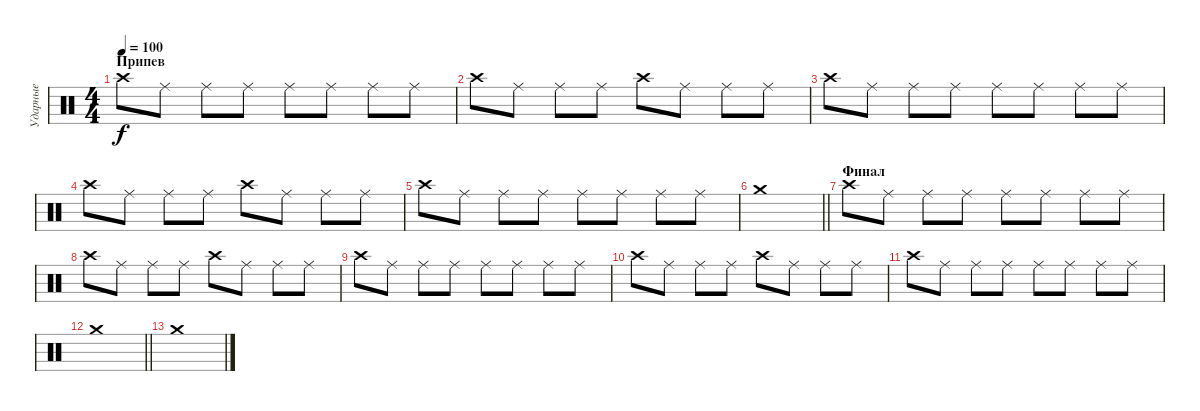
\track ("Ударные" "Ударные") {instrument percussion}
\staff {score}
\articulation defaults
\ts (4 4)
\section ("" "Припев")
\tempo 100
\clef neutral
\ks c "Crash high (hit)".8{dy f} "Ride (middle)".8 "Ride (middle)".8 "Ride (middle)".8 "Ride (middle)".8 "Ride (middle)".8 "Ride (middle)".8 "Ride (middle)".8
|
"Crash high (hit)".8 "Ride (middle)".8 "Ride (middle)".8 "Ride (middle)".8 "Crash high (hit)".8 "Ride (middle)".8 "Ride (middle)".8 "Ride (middle)".8 |
"Crash high (hit)".8 "Ride (middle)".8 "Ride (middle)".8 "Ride (middle)".8 "Ride (middle)".8 "Ride (middle)".8 "Ride (middle)".8 "Ride (middle)".8 |
"Crash high (hit)".8 "Ride (middle)".8 "Ride (middle)".8 "Ride (middle)".8 "Crash high (hit)".8 "Ride (middle)".8 "Ride (middle)".8 "Ride (middle)".8 |
"Crash high (hit)".8 "Ride (middle)".8 "Ride (middle)".8 "Ride (middle)".8 "Ride (middle)".8 "Ride (middle)".8 "Ride (middle)".8 "Ride (middle)".8 |
\barLineRight lightlight "Crash medium (hit)".1
|
\section ("" "Финал")
"Crash high (hit)".8 "Ride (middle)".8 "Ride (middle)".8 "Ride (middle)".8 "Ride (middle)".8 "Ride (middle)".8 "Ride (middle)".8 "Ride (middle)".8 |
"Crash high (hit)".8 "Ride (middle)".8 "Ride (middle)".8 "Ride (middle)".8 "Crash high (hit)".8 "Ride (middle)".8 "Ride (middle)".8 "Ride (middle)".8 |
"Crash high (hit)".8 "Ride (middle)".8 "Ride (middle)".8 "Ride (middle)".8 "Ride (middle)".8 "Ride (middle)".8 "Ride (middle)".8 "Ride (middle)".8 |
"Crash high (hit)".8 "Ride (middle)".8 "Ride (middle)".8 "Ride (middle)".8 "Crash high (hit)".8 "Ride (middle)".8 "Ride (middle)".8 "Ride (middle)".8 |
"Crash high (hit)".8 "Ride (middle)".8 "Ride (middle)".8 "Ride (middle)".8 "Ride (middle)".8 "Ride (middle)".8 "Ride (middle)".8 "Ride (middle)".8 |
\barLineRight lightlight "Crash medium (hit)".1
|
"Crash medium (hit)".1
